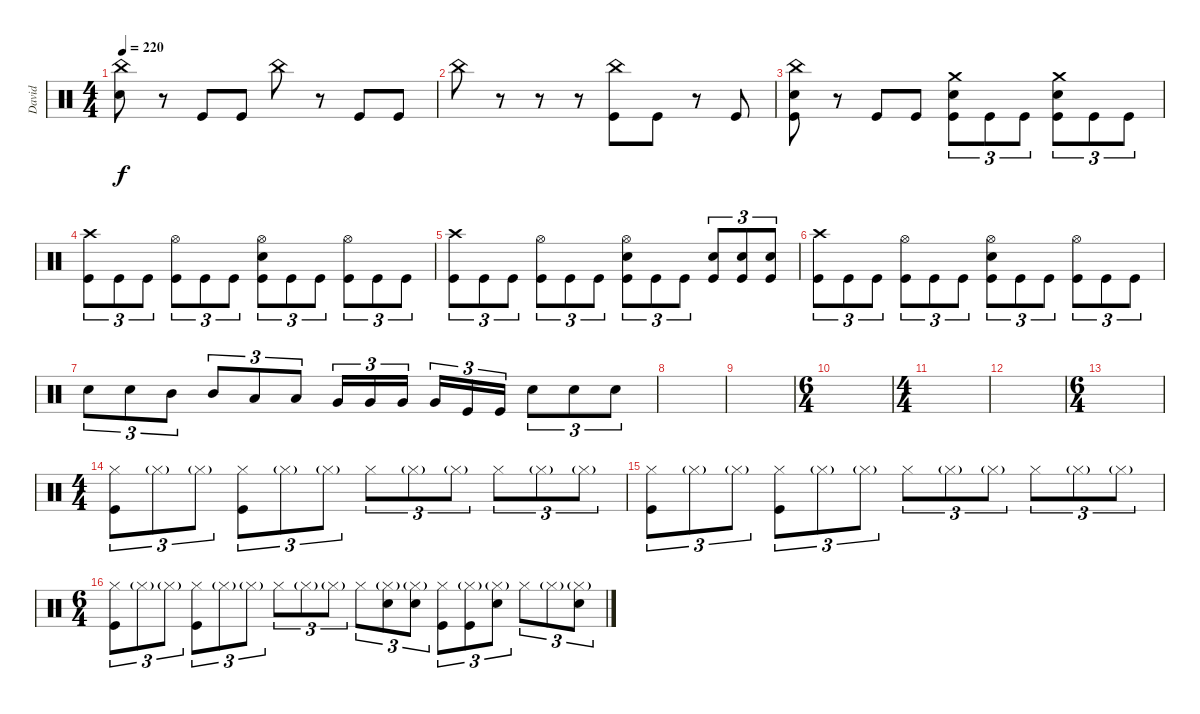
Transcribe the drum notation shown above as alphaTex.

\track ("David" "David") {instrument percussion}
\staff {score}
\articulation defaults
\ts (4 4)
\tempo 220
\clef neutral
\ks c
("China (hit)" "Electric Snare (hit)").8{dy f} r.8 "Kick (hit)".8 "Kick (hit)".8 "China (hit)".8 r.8 "Kick (hit)".8 "Kick (hit)".8 |
"China (hit)".8 r.8 r.8 r.8 ("China (hit)" "Kick (hit)").8 "Kick (hit)".8 r.8 "Kick (hit)".8 |
("China (hit)" "Electric Snare (hit)" "Kick (hit)").8 r.8 "Kick (hit)".8 "Kick (hit)".8 ("Crash medium (hit)" "Electric Snare (hit)" "Kick (hit)").8{tu (3 2)} "Kick (hit)".8{tu (3 2)} "Kick (hit)".8{tu (3 2)} ("Crash medium (hit)" "Electric Snare (hit)" "Kick (hit)").8{tu (3 2)} "Kick (hit)".8{tu (3 2)} "Kick (hit)".8{tu (3 2)} |
("Crash high (hit)" "Kick (hit)").8{tu (3 2)} "Kick (hit)".8{tu (3 2)} "Kick (hit)".8{tu (3 2)} ("Hi-Hat (open)" "Kick (hit)").8{tu (3 2)} "Kick (hit)".8{tu (3 2)} "Kick (hit)".8{tu (3 2)} ("Hi-Hat (open)" "Electric Snare (hit)" "Kick (hit)").8{tu (3 2)} "Kick (hit)".8{tu (3 2)} "Kick (hit)".8{tu (3 2)} ("Hi-Hat (open)" "Kick (hit)").8{tu (3 2)} "Kick (hit)".8{tu (3 2)} "Kick (hit)".8{tu (3 2)} |
("Crash high (hit)" "Kick (hit)").8{tu (3 2)} "Kick (hit)".8{tu (3 2)} "Kick (hit)".8{tu (3 2)} ("Hi-Hat (open)" "Kick (hit)").8{tu (3 2)} "Kick (hit)".8{tu (3 2)} "Kick (hit)".8{tu (3 2)} ("Hi-Hat (open)" "Electric Snare (hit)" "Kick (hit)").8{tu (3 2)} "Kick (hit)".8{tu (3 2)} "Kick (hit)".8{tu (3 2)} ("Electric Snare (hit)" "Kick (hit)").8{tu (3 2)} ("Electric Snare (hit)" "Kick (hit)").8{tu (3 2)} ("Electric Snare (hit)" "Kick (hit)").8{tu (3 2)} |
("Crash high (hit)" "Kick (hit)").8{tu (3 2)} "Kick (hit)".8{tu (3 2)} "Kick (hit)".8{tu (3 2)} ("Hi-Hat (open)" "Kick (hit)").8{tu (3 2)} "Kick (hit)".8{tu (3 2)} "Kick (hit)".8{tu (3 2)} ("Hi-Hat (open)" "Electric Snare (hit)" "Kick (hit)").8{tu (3 2)} "Kick (hit)".8{tu (3 2)} "Kick (hit)".8{tu (3 2)} ("Hi-Hat (open)" "Kick (hit)").8{tu (3 2)} "Kick (hit)".8{tu (3 2)} "Kick (hit)".8{tu (3 2)} |
"Electric Snare (hit)".8{tu (3 2)} "Electric Snare (hit)".8{tu (3 2)} "Mid Tom (hit)".8{tu (3 2)} "Mid Tom (hit)".8{tu (3 2)} "Low Tom (hit)".8{tu (3 2)} "Low Tom (hit)".8{tu (3 2)} "Very Low Tom (hit)".16{tu (3 2)} "Very Low Tom (hit)".16{tu (3 2)} "Very Low Tom (hit)".16{tu (3 2) beam splitsecondary} "Very Low Tom (hit)".16{tu (3 2)} "Kick (hit)".16{tu (3 2)} "Kick (hit)".16{tu (3 2)} "Electric Snare (hit)".8{tu (3 2)} "Electric Snare (hit)".8{tu (3 2)} "Electric Snare (hit)".8{tu (3 2)} |
|
|
\ts (6 4)
|
\ts (4 4)
|
|
\ts (6 4)
|
\ts (4 4)
("Hi-Hat (closed)" "Kick (hit)").8{tu (3 2)} "Hi-Hat (closed)"{g}.8{tu (3 2)} "Hi-Hat (closed)"{g}.8{tu (3 2)} ("Hi-Hat (closed)" "Kick (hit)").8{tu (3 2)} "Hi-Hat (closed)"{g}.8{tu (3 2)} "Hi-Hat (closed)"{g}.8{tu (3 2)} "Hi-Hat (closed)".8{tu (3 2)} "Hi-Hat (closed)"{g}.8{tu (3 2)} "Hi-Hat (closed)"{g}.8{tu (3 2)} "Hi-Hat (closed)".8{tu (3 2)} "Hi-Hat (closed)"{g}.8{tu (3 2)} "Hi-Hat (closed)"{g}.8{tu (3 2)} |
("Hi-Hat (closed)" "Kick (hit)").8{tu (3 2)} "Hi-Hat (closed)"{g}.8{tu (3 2)} "Hi-Hat (closed)"{g}.8{tu (3 2)} ("Hi-Hat (closed)" "Kick (hit)").8{tu (3 2)} "Hi-Hat (closed)"{g}.8{tu (3 2)} "Hi-Hat (closed)"{g}.8{tu (3 2)} "Hi-Hat (closed)".8{tu (3 2)} "Hi-Hat (closed)"{g}.8{tu (3 2)} "Hi-Hat (closed)"{g}.8{tu (3 2)} "Hi-Hat (closed)".8{tu (3 2)} "Hi-Hat (closed)"{g}.8{tu (3 2)} "Hi-Hat (closed)"{g}.8{tu (3 2)} |
\ts (6 4)
("Hi-Hat (closed)" "Kick (hit)").8{tu (3 2)} "Hi-Hat (closed)"{g}.8{tu (3 2)} "Hi-Hat (closed)"{g}.8{tu (3 2)} ("Hi-Hat (closed)" "Kick (hit)").8{tu (3 2)} "Hi-Hat (closed)"{g}.8{tu (3 2)} "Hi-Hat (closed)"{g}.8{tu (3 2)} "Hi-Hat (closed)".8{tu (3 2)} "Hi-Hat (closed)"{g}.8{tu (3 2)} "Hi-Hat (closed)"{g}.8{tu (3 2)} "Hi-Hat (closed)".8{tu (3 2)} ("Hi-Hat (closed)"{g} "Electric Snare (hit)").8{tu (3 2)} ("Hi-Hat (closed)"{g} "Electric Snare (hit)").8{tu (3 2)} ("Hi-Hat (closed)" "Kick (hit)").8{tu (3 2)} ("Hi-Hat (closed)"{g} "Kick (hit)").8{tu (3 2)} ("Hi-Hat (closed)"{g} "Electric Snare (hit)").8{tu (3 2)} "Hi-Hat (closed)".8{tu (3 2)} "Hi-Hat (closed)"{g}.8{tu (3 2)} ("Hi-Hat (closed)"{g} "Electric Snare (hit)").8{tu (3 2)}
